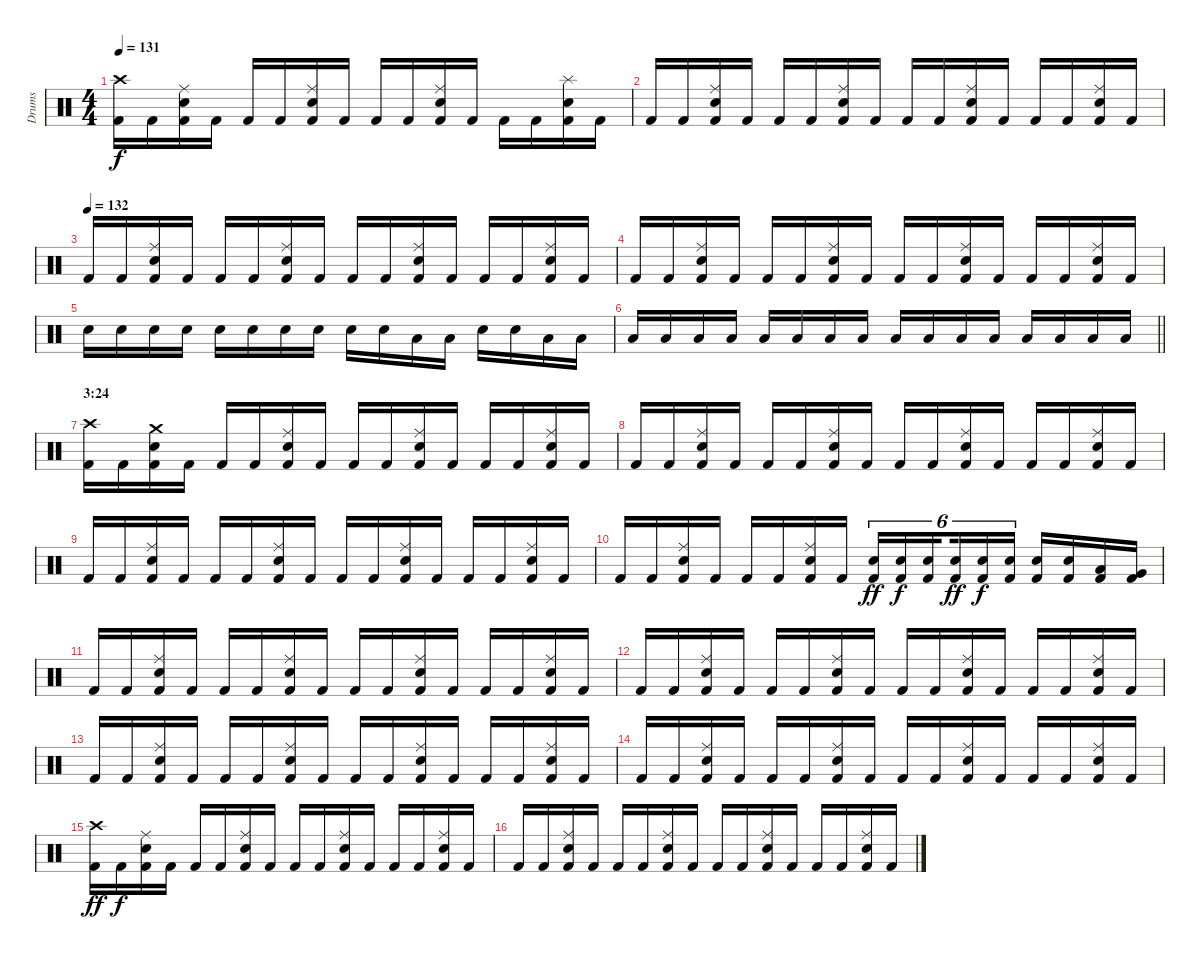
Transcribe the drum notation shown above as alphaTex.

\track ("Drums" "Drums") {instrument percussion}
\staff {score}
\articulation defaults
\ts (4 4)
\tempo 131
\clef neutral
\ks c
("Crash high (hit)" "Kick (hit) 2").16{dy f} "Kick (hit) 2".16 ("Ride (middle)" "Snare (hit) 2" "Kick (hit) 2").16 "Kick (hit) 2".16 "Kick (hit) 2".16 "Kick (hit) 2".16 ("Ride (middle)" "Snare (hit) 2" "Kick (hit) 2").16 "Kick (hit) 2".16 "Kick (hit) 2".16 "Kick (hit) 2".16 ("Ride (middle)" "Snare (hit) 2" "Kick (hit) 2").16 "Kick (hit) 2".16 "Kick (hit) 2".16 "Kick (hit) 2".16 ("Splash (hit)" "Snare (hit) 2" "Kick (hit) 2").16 "Kick (hit) 2".16 |
"Kick (hit) 2".16 "Kick (hit) 2".16 ("Ride (middle)" "Snare (hit) 2" "Kick (hit) 2").16 "Kick (hit) 2".16 "Kick (hit) 2".16 "Kick (hit) 2".16 ("Ride (middle)" "Snare (hit) 2" "Kick (hit) 2").16 "Kick (hit) 2".16 "Kick (hit) 2".16 "Kick (hit) 2".16 ("Ride (middle)" "Snare (hit) 2" "Kick (hit) 2").16 "Kick (hit) 2".16 "Kick (hit) 2".16 "Kick (hit) 2".16 ("Ride (middle)" "Snare (hit) 2" "Kick (hit) 2").16 "Kick (hit) 2".16 |
\tempo (132)
"Kick (hit) 2".16 "Kick (hit) 2".16 ("Ride (middle)" "Snare (hit) 2" "Kick (hit) 2").16 "Kick (hit) 2".16 "Kick (hit) 2".16 "Kick (hit) 2".16 ("Ride (middle)" "Snare (hit) 2" "Kick (hit) 2").16 "Kick (hit) 2".16 "Kick (hit) 2".16 "Kick (hit) 2".16 ("Ride (middle)" "Snare (hit) 2" "Kick (hit) 2").16 "Kick (hit) 2".16 "Kick (hit) 2".16 "Kick (hit) 2".16 ("Ride (middle)" "Snare (hit) 2" "Kick (hit) 2").16 "Kick (hit) 2".16 |
"Kick (hit) 2".16 "Kick (hit) 2".16 ("Ride (middle)" "Snare (hit) 2" "Kick (hit) 2").16 "Kick (hit) 2".16 "Kick (hit) 2".16 "Kick (hit) 2".16 ("Ride (middle)" "Snare (hit) 2" "Kick (hit) 2").16 "Kick (hit) 2".16 "Kick (hit) 2".16 "Kick (hit) 2".16 ("Ride (middle)" "Snare (hit) 2" "Kick (hit) 2").16 "Kick (hit) 2".16 "Kick (hit) 2".16 "Kick (hit) 2".16 ("Ride (middle)" "Snare (hit) 2" "Kick (hit) 2").16 "Kick (hit) 2".16 |
"Snare (hit) 2".16 "Snare (hit) 2".16 "Snare (hit) 2".16 "Snare (hit) 2".16 "Snare (hit) 2".16 "Snare (hit) 2".16 "Snare (hit) 2".16 "Snare (hit) 2".16 "Snare (hit) 2".16 "Snare (hit) 2".16 "Low Tom (hit)".16 "Low Tom (hit)".16 "Snare (hit) 2".16 "Snare (hit) 2".16 "Low Tom (hit)".16 "Low Tom (hit)".16 |
\barLineRight lightlight "Low Tom (hit)".16 "Low Tom (hit)".16 "Low Floor Tom (hit)".16 "Low Floor Tom (hit)".16 "Low Tom (hit)".16 "Low Tom (hit)".16 "Low Floor Tom (hit)".16 "Low Floor Tom (hit)".16 "Low Tom (hit)".16 "Low Tom (hit)".16 "Low Floor Tom (hit)".16 "Low Floor Tom (hit)".16 "Low Tom (hit)".16 "Low Tom (hit)".16 "Low Floor Tom (hit)".16 "Low Floor Tom (hit)".16
|
\section ("" "3:24")
("Crash high (hit)" "Kick (hit) 2").16 "Kick (hit) 2".16 ("Crash medium (hit)" "Snare (hit) 2" "Kick (hit) 2").16 "Kick (hit) 2".16 "Kick (hit) 2".16 "Kick (hit) 2".16 ("Ride (middle)" "Snare (hit) 2" "Kick (hit) 2").16 "Kick (hit) 2".16 "Kick (hit) 2".16 "Kick (hit) 2".16 ("Ride (middle)" "Snare (hit) 2" "Kick (hit) 2").16 "Kick (hit) 2".16 "Kick (hit) 2".16 "Kick (hit) 2".16 ("Ride (middle)" "Snare (hit) 2" "Kick (hit) 2").16 "Kick (hit) 2".16 |
"Kick (hit) 2".16 "Kick (hit) 2".16 ("Ride (middle)" "Snare (hit) 2" "Kick (hit) 2").16 "Kick (hit) 2".16 "Kick (hit) 2".16 "Kick (hit) 2".16 ("Ride (middle)" "Snare (hit) 2" "Kick (hit) 2").16 "Kick (hit) 2".16 "Kick (hit) 2".16 "Kick (hit) 2".16 ("Ride (middle)" "Snare (hit) 2" "Kick (hit) 2").16 "Kick (hit) 2".16 "Kick (hit) 2".16 "Kick (hit) 2".16 ("Ride (middle)" "Snare (hit) 2" "Kick (hit) 2").16 "Kick (hit) 2".16 |
"Kick (hit) 2".16 "Kick (hit) 2".16 ("Ride (middle)" "Snare (hit) 2" "Kick (hit) 2").16 "Kick (hit) 2".16 "Kick (hit) 2".16 "Kick (hit) 2".16 ("Ride (middle)" "Snare (hit) 2" "Kick (hit) 2").16 "Kick (hit) 2".16 "Kick (hit) 2".16 "Kick (hit) 2".16 ("Ride (middle)" "Snare (hit) 2" "Kick (hit) 2").16 "Kick (hit) 2".16 "Kick (hit) 2".16 "Kick (hit) 2".16 ("Ride (middle)" "Snare (hit) 2" "Kick (hit) 2").16 "Kick (hit) 2".16 |
"Kick (hit) 2".16 "Kick (hit) 2".16 ("Ride (middle)" "Snare (hit) 2" "Kick (hit) 2").16 "Kick (hit) 2".16 "Kick (hit) 2".16 "Kick (hit) 2".16 ("Ride (middle)" "Snare (hit) 2" "Kick (hit) 2").16 "Kick (hit) 2".16 ("Snare (hit) 2" "Kick (hit) 2").16{tu (6 4) dy ff} ("Snare (hit) 2" "Kick (hit) 2").16{tu (6 4) dy f} ("Snare (hit) 2" "Kick (hit) 2").16{tu (6 4) beam splitsecondary} ("Snare (hit) 2" "Kick (hit) 2").16{tu (6 4) dy ff} ("Snare (hit) 2" "Kick (hit) 2").16{tu (6 4) dy f} ("Snare (hit) 2" "Kick (hit) 2").16{tu (6 4)} ("Snare (hit) 2" "Kick (hit) 2").16 ("Snare (hit) 2" "Kick (hit) 2").16 ("Low Tom (hit)" "Kick (hit) 2").16 ("Very Low Tom (hit)" "Kick (hit) 2").16 |
"Kick (hit) 2".16 "Kick (hit) 2".16 ("Ride (middle)" "Snare (hit) 2" "Kick (hit) 2").16 "Kick (hit) 2".16 "Kick (hit) 2".16 "Kick (hit) 2".16 ("Ride (middle)" "Snare (hit) 2" "Kick (hit) 2").16 "Kick (hit) 2".16 "Kick (hit) 2".16 "Kick (hit) 2".16 ("Ride (middle)" "Snare (hit) 2" "Kick (hit) 2").16 "Kick (hit) 2".16 "Kick (hit) 2".16 "Kick (hit) 2".16 ("Ride (middle)" "Snare (hit) 2" "Kick (hit) 2").16 "Kick (hit) 2".16 |
"Kick (hit) 2".16 "Kick (hit) 2".16 ("Ride (middle)" "Snare (hit) 2" "Kick (hit) 2").16 "Kick (hit) 2".16 "Kick (hit) 2".16 "Kick (hit) 2".16 ("Ride (middle)" "Snare (hit) 2" "Kick (hit) 2").16 "Kick (hit) 2".16 "Kick (hit) 2".16 "Kick (hit) 2".16 ("Ride (middle)" "Snare (hit) 2" "Kick (hit) 2").16 "Kick (hit) 2".16 "Kick (hit) 2".16 "Kick (hit) 2".16 ("Ride (middle)" "Snare (hit) 2" "Kick (hit) 2").16 "Kick (hit) 2".16 |
"Kick (hit) 2".16 "Kick (hit) 2".16 ("Ride (middle)" "Snare (hit) 2" "Kick (hit) 2").16 "Kick (hit) 2".16 "Kick (hit) 2".16 "Kick (hit) 2".16 ("Ride (middle)" "Snare (hit) 2" "Kick (hit) 2").16 "Kick (hit) 2".16 "Kick (hit) 2".16 "Kick (hit) 2".16 ("Ride (middle)" "Snare (hit) 2" "Kick (hit) 2").16 "Kick (hit) 2".16 "Kick (hit) 2".16 "Kick (hit) 2".16 ("Ride (middle)" "Snare (hit) 2" "Kick (hit) 2").16 "Kick (hit) 2".16 |
"Kick (hit) 2".16 "Kick (hit) 2".16 ("Ride (middle)" "Snare (hit) 2" "Kick (hit) 2").16 "Kick (hit) 2".16 "Kick (hit) 2".16 "Kick (hit) 2".16 ("Ride (middle)" "Snare (hit) 2" "Kick (hit) 2").16 "Kick (hit) 2".16 "Kick (hit) 2".16 "Kick (hit) 2".16 ("Ride (middle)" "Snare (hit) 2" "Kick (hit) 2").16 "Kick (hit) 2".16 "Kick (hit) 2".16 "Kick (hit) 2".16 ("Ride (middle)" "Snare (hit) 2" "Kick (hit) 2").16 "Kick (hit) 2".16 |
("Crash high (hit)" "Kick (hit) 2").16{dy ff} "Kick (hit) 2".16{dy f} ("Ride (middle)" "Snare (hit) 2" "Kick (hit) 2").16 "Kick (hit) 2".16 "Kick (hit) 2".16 "Kick (hit) 2".16 ("Ride (middle)" "Snare (hit) 2" "Kick (hit) 2").16 "Kick (hit) 2".16 "Kick (hit) 2".16 "Kick (hit) 2".16 ("Ride (middle)" "Snare (hit) 2" "Kick (hit) 2").16 "Kick (hit) 2".16 "Kick (hit) 2".16 "Kick (hit) 2".16 ("Ride (middle)" "Snare (hit) 2" "Kick (hit) 2").16 "Kick (hit) 2".16 |
"Kick (hit) 2".16 "Kick (hit) 2".16 ("Ride (middle)" "Snare (hit) 2" "Kick (hit) 2").16 "Kick (hit) 2".16 "Kick (hit) 2".16 "Kick (hit) 2".16 ("Ride (middle)" "Snare (hit) 2" "Kick (hit) 2").16 "Kick (hit) 2".16 "Kick (hit) 2".16 "Kick (hit) 2".16 ("Ride (middle)" "Snare (hit) 2" "Kick (hit) 2").16 "Kick (hit) 2".16 "Kick (hit) 2".16 "Kick (hit) 2".16 ("Ride (middle)" "Snare (hit) 2" "Kick (hit) 2").16 "Kick (hit) 2".16
